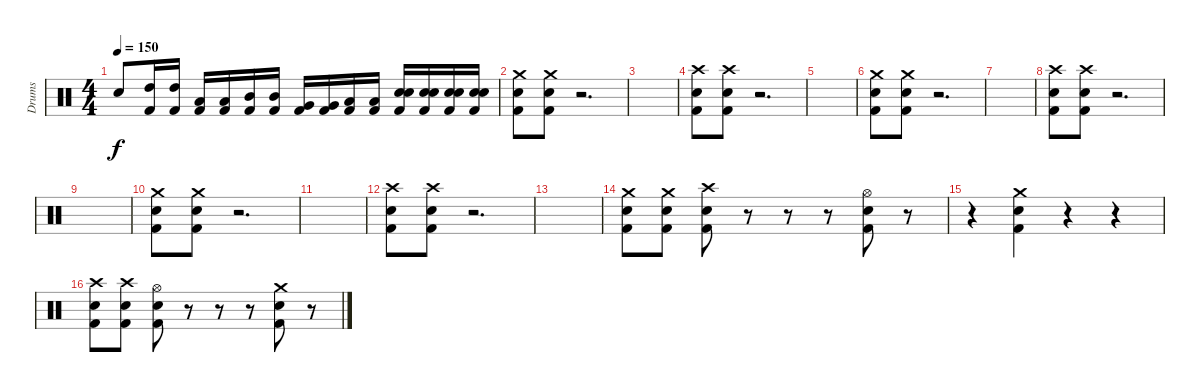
\track ("Drums" "Drums") {instrument percussion}
\staff {score}
\articulation defaults
\ts (4 4)
\tempo 150
\clef neutral
\ks c "Snare (hit) 2".8{dy f}
("High Tom (hit)" "Kick (hit) 2").16 ("High Tom (hit)" "Kick (hit) 2").16 ("Low Tom (hit)" "Kick (hit) 2").16 ("Low Tom (hit)" "Kick (hit) 2").16 ("Mid Tom (hit)" "Kick (hit) 2").16 ("Mid Tom (hit)" "Kick (hit) 2").16 ("Very Low Tom (hit)" "Kick (hit) 2").16 ("Very Low Tom (hit)" "Kick (hit) 2").16 ("Low Floor Tom (hit)" "Kick (hit) 2").16 ("Low Floor Tom (hit)" "Kick (hit) 2").16 ("Snare (hit) 2" "Snare (hit) 2" "Kick (hit) 2").16 ("Snare (hit) 2" "Snare (hit) 2" "Kick (hit) 2").16 ("Snare (hit) 2" "Snare (hit) 2" "Kick (hit) 2").16 ("Snare (hit) 2" "Snare (hit) 2" "Kick (hit) 2").16 |
("Crash medium (hit)" "Snare (hit) 2" "Kick (hit) 2").8 ("Crash medium (hit)" "Snare (hit) 2" "Kick (hit) 2").8 r.2{d} |
|
("Crash high (hit)" "Snare (hit) 2" "Kick (hit) 2").8 ("Crash high (hit)" "Snare (hit) 2" "Kick (hit) 2").8 r.2{d} |
|
("Crash medium (hit)" "Snare (hit) 2" "Kick (hit) 2").8 ("Crash medium (hit)" "Snare (hit) 2" "Kick (hit) 2").8 r.2{d} |
|
("Crash high (hit)" "Snare (hit) 2" "Kick (hit) 2").8 ("Crash high (hit)" "Snare (hit) 2" "Kick (hit) 2").8 r.2{d} |
|
("Crash medium (hit)" "Snare (hit) 2" "Kick (hit) 2").8 ("Crash medium (hit)" "Snare (hit) 2" "Kick (hit) 2").8 r.2{d} |
|
("Crash high (hit)" "Snare (hit) 2" "Kick (hit) 2").8 ("Crash high (hit)" "Snare (hit) 2" "Kick (hit) 2").8 r.2{d} |
|
("Crash medium (hit)" "Snare (hit) 2" "Kick (hit) 2").8 ("Crash medium (hit)" "Snare (hit) 2" "Kick (hit) 2").8 ("Crash high (hit)" "Snare (hit) 2" "Kick (hit) 2").8 r.8 r.8 r.8 ("Hi-Hat (open)" "Snare (hit) 2" "Kick (hit) 2").8 r.8 |
r.4 ("Crash medium (hit)" "Snare (hit) 2" "Kick (hit) 2").4 r.4 r.4 |
("Crash high (hit)" "Snare (hit) 2" "Kick (hit) 2").8 ("Crash high (hit)" "Snare (hit) 2" "Kick (hit) 2").8 ("Hi-Hat (open)" "Snare (hit) 2" "Kick (hit) 2").8 r.8 r.8 r.8 ("Crash medium (hit)" "Snare (hit) 2" "Kick (hit) 2").8 r.8
